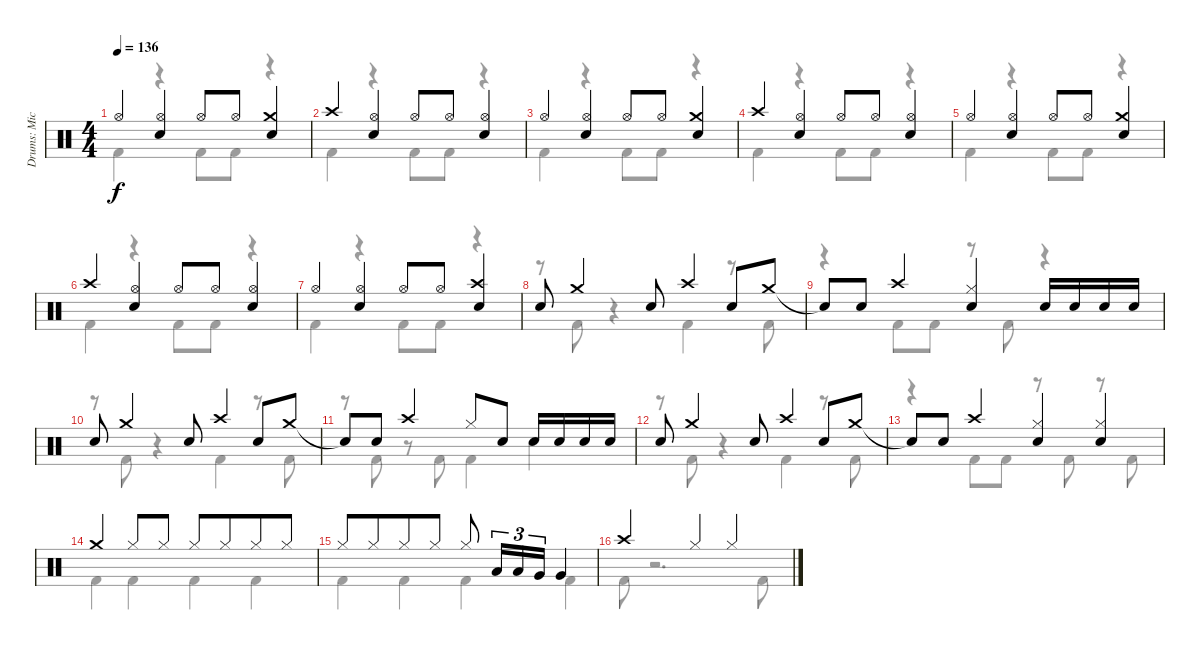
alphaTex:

\track ("Drums: Mick" "Drums: Mic") {instrument percussion}
\staff {score}
\articulation defaults
\voice
\ts (4 4)
\tempo 136
\clef neutral
\ks c "Hi-Hat (open)".4{dy f}
("Hi-Hat (open)" "Snare (hit) 2").4 "Hi-Hat (open)".8 "Hi-Hat (open)".8 ("Crash medium (hit)" "Snare (hit) 2").4 |
"Crash high (hit)".4 ("Hi-Hat (open)" "Snare (hit) 2").4 "Hi-Hat (open)".8 "Hi-Hat (open)".8 ("Hi-Hat (open)" "Snare (hit) 2").4 |
"Hi-Hat (open)".4 ("Hi-Hat (open)" "Snare (hit) 2").4 "Hi-Hat (open)".8 "Hi-Hat (open)".8 ("Crash medium (hit)" "Snare (hit) 2").4 |
"Crash high (hit)".4 ("Hi-Hat (open)" "Snare (hit) 2").4 "Hi-Hat (open)".8 "Hi-Hat (open)".8 ("Hi-Hat (open)" "Snare (hit) 2").4 |
"Hi-Hat (open)".4 ("Hi-Hat (open)" "Snare (hit) 2").4 "Hi-Hat (open)".8 "Hi-Hat (open)".8 ("Crash medium (hit)" "Snare (hit) 2").4 |
"Crash high (hit)".4 ("Hi-Hat (open)" "Snare (hit) 2").4 "Hi-Hat (open)".8 "Hi-Hat (open)".8 ("Hi-Hat (open)" "Snare (hit) 2").4 |
"Hi-Hat (open)".4 ("Hi-Hat (open)" "Snare (hit) 2").4 "Hi-Hat (open)".8 "Hi-Hat (open)".8 ("Crash high (hit)" "Snare (hit) 2").4 |
"Snare (hit) 2".8 "Crash medium (hit)".4 "Snare (hit) 2".8 "Crash high (hit)".4 "Snare (hit) 2".8 "Crash medium (hit)".8 |
"Snare (hit)"{t}.8 "Snare (hit) 2".8 "Crash high (hit)".4 ("Hi-Hat (closed)" "Snare (hit) 2").4 "Snare (hit) 2".16 "Snare (hit) 2".16 "Snare (hit) 2".16 "Snare (hit) 2".16 |
"Snare (hit) 2".8 "Crash medium (hit)".4 "Snare (hit) 2".8 "Crash high (hit)".4 "Snare (hit) 2".8 "Crash medium (hit)".8 |
"Snare (hit)"{t}.8 "Snare (hit) 2".8 "Crash high (hit)".4 "Hi-Hat (closed)".8 "Snare (hit) 2".8 "Snare (hit) 2".16 "Snare (hit) 2".16 "Snare (hit) 2".16 "Snare (hit) 2".16 |
"Snare (hit) 2".8 "Crash medium (hit)".4 "Snare (hit) 2".8 "Crash high (hit)".4 "Snare (hit) 2".8 "Crash medium (hit)".8 |
"Snare (hit)"{t}.8 "Snare (hit) 2".8 "Crash high (hit)".4 ("Hi-Hat (closed)" "Snare (hit) 2").4 ("Hi-Hat (closed)" "Snare (hit) 2").4 |
"Crash medium (hit)".4 "Hi-Hat (closed)".8 "Hi-Hat (closed)".8 "Hi-Hat (closed)".8 "Hi-Hat (closed)".8{beam merge} "Hi-Hat (closed)".8 "Hi-Hat (closed)".8 |
"Hi-Hat (closed)".8 "Hi-Hat (closed)".8{beam merge} "Hi-Hat (closed)".8 "Hi-Hat (closed)".8 "Hi-Hat (closed)".8 "Low Tom (hit)".16{tu (3 2)} "Low Tom (hit)".16{tu (3 2)} "Very Low Tom (hit)".16{tu (3 2)} "Very Low Tom (hit)".4 |
"Crash high (hit)".2 "Hi-Hat (closed)".4 "Hi-Hat (closed)".4
\voice
\clef neutral
\ottava regular
\simile none
\ks c "Kick (hit) 2".4{dy f}
r.4 "Kick (hit) 2".8 "Kick (hit) 2".8 r.4 |
"Kick (hit) 2".4 r.4 "Kick (hit) 2".8 "Kick (hit) 2".8 r.4 |
"Kick (hit) 2".4 r.4 "Kick (hit) 2".8 "Kick (hit) 2".8 r.4 |
"Kick (hit) 2".4 r.4 "Kick (hit) 2".8 "Kick (hit) 2".8 r.4 |
"Kick (hit) 2".4 r.4 "Kick (hit) 2".8 "Kick (hit) 2".8 r.4 |
"Kick (hit) 2".4 r.4 "Kick (hit) 2".8 "Kick (hit) 2".8 r.4 |
"Kick (hit) 2".4 r.4 "Kick (hit) 2".8 "Kick (hit) 2".8 r.4 |
r.8 "Kick (hit) 2".8 r.4 "Kick (hit) 2".4 r.8 "Kick (hit) 2".8 |
r.4 "Kick (hit) 2".8 "Kick (hit) 2".8 r.8 "Kick (hit) 2".8 r.4 |
r.8 "Kick (hit) 2".8 r.4 "Kick (hit) 2".4 r.8 "Kick (hit) 2".8 |
r.8 "Kick (hit) 2".8 r.8 "Kick (hit) 2".8 "Kick (hit) 2".4 "Snare (hit)".4 |
r.8 "Kick (hit) 2".8 r.4 "Kick (hit) 2".4 r.8 "Kick (hit) 2".8 |
r.4 "Kick (hit) 2".8 "Kick (hit) 2".8 r.8 "Kick (hit) 2".8 r.8 "Kick (hit) 2".8 |
"Kick (hit) 2".4 "Kick (hit) 2".4 "Kick (hit) 2".4 "Kick (hit) 2".4 |
"Kick (hit) 2".4 "Kick (hit) 2".4 "Kick (hit) 2".4 "Kick (hit) 2".4 |
"Kick (hit) 2".8 r.2{d} "Kick (hit) 2".8
